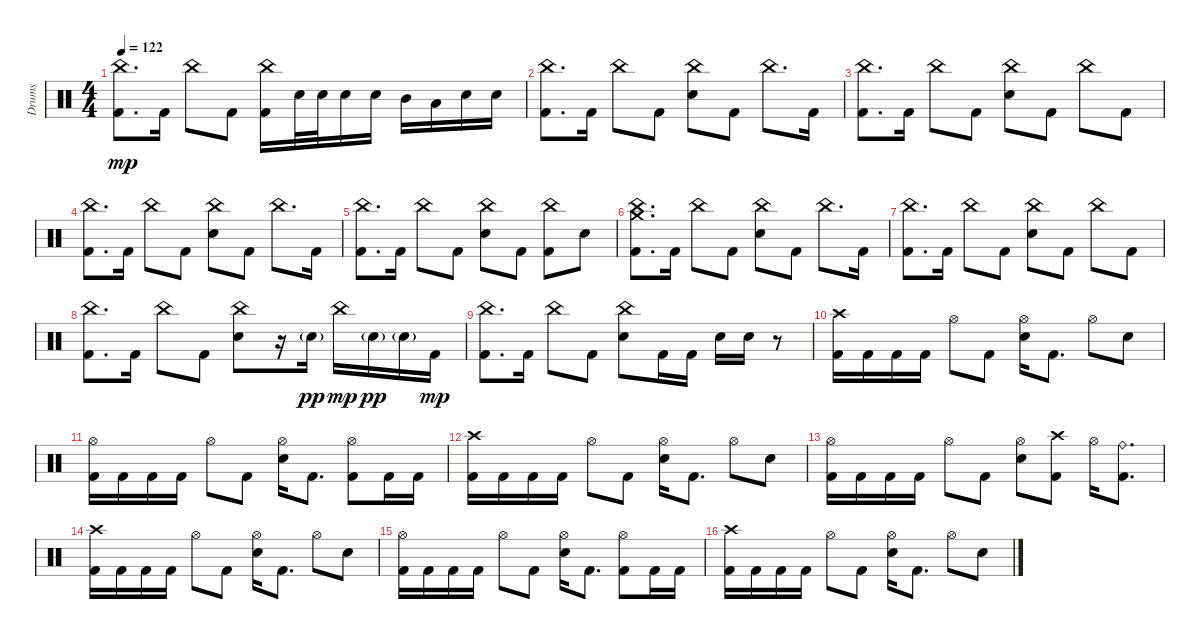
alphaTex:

\track ("Drums" "Drums") {instrument percussion}
\staff {score}
\articulation defaults
\ts (4 4)
\tempo 122
\clef neutral
\ks c
("China (hit)" "Kick (hit) 2").8{d dy mp} "Kick (hit) 2".16 "China (hit)".8 "Kick (hit) 2".8 ("China (hit)" "Kick (hit) 2").16 "Electric Snare (hit)".32 "Electric Snare (hit)".32 "Electric Snare (hit)".16 "Electric Snare (hit)".16 "Mid Tom (hit)".16 "Low Tom (hit)".16 "Electric Snare (hit)".16 "Electric Snare (hit)".16 |
("China (hit)" "Kick (hit) 2").8{d} "Kick (hit) 2".16 "China (hit)".8 "Kick (hit) 2".8 ("China (hit)" "Electric Snare (hit)").8 "Kick (hit) 2".8 "China (hit)".8{d} "Kick (hit) 2".16 |
("China (hit)" "Kick (hit) 2").8{d} "Kick (hit) 2".16 "China (hit)".8 "Kick (hit) 2".8 ("China (hit)" "Electric Snare (hit)").8 "Kick (hit) 2".8 "China (hit)".8 "Kick (hit) 2".8 |
("China (hit)" "Kick (hit) 2").8{d} "Kick (hit) 2".16 "China (hit)".8 "Kick (hit) 2".8 ("China (hit)" "Electric Snare (hit)").8 "Kick (hit) 2".8 "China (hit)".8{d} "Kick (hit) 2".16 |
("China (hit)" "Kick (hit) 2").8{d} "Kick (hit) 2".16 "China (hit)".8 "Kick (hit) 2".8 ("China (hit)" "Electric Snare (hit)").8 "Kick (hit) 2".8 ("China (hit)" "Kick (hit) 2").8 "Electric Snare (hit)".8 |
("China (hit)" "Crash medium (hit)" "Kick (hit) 2").8{d} "Kick (hit) 2".16 "China (hit)".8 "Kick (hit) 2".8 ("China (hit)" "Electric Snare (hit)").8 "Kick (hit) 2".8 "China (hit)".8{d} "Kick (hit) 2".16 |
("China (hit)" "Kick (hit) 2").8{d} "Kick (hit) 2".16 "China (hit)".8 "Kick (hit) 2".8 ("China (hit)" "Electric Snare (hit)").8 "Kick (hit) 2".8 "China (hit)".8 "Kick (hit) 2".8 |
("China (hit)" "Kick (hit) 2").8{d} "Kick (hit) 2".16 "China (hit)".8 "Kick (hit) 2".8 ("China (hit)" "Electric Snare (hit)").8 r.16 "Electric Snare (hit)"{g}.16{dy pp} "China (hit)".16{dy mp} "Electric Snare (hit)"{g}.16{dy pp} "Electric Snare (hit)"{g}.16 "Kick (hit) 2".16{dy mp} |
("China (hit)" "Kick (hit) 2").8{d} "Kick (hit) 2".16 "China (hit)".8 "Kick (hit) 2".8 ("China (hit)" "Electric Snare (hit)").8 "Kick (hit) 2".16 "Kick (hit) 2".16 "Electric Snare (hit)".16 "Electric Snare (hit)".16 r.8 |
("Crash high (hit)" "Kick (hit) 2").16 "Kick (hit) 2".16 "Kick (hit) 2".16 "Kick (hit) 2".16 "Hi-Hat (open)".8 "Kick (hit) 2".8 ("Hi-Hat (open)" "Electric Snare (hit)").16 "Kick (hit) 2".8{d} "Hi-Hat (open)".8 "Electric Snare (hit)".8 |
("Hi-Hat (open)" "Kick (hit) 2").16 "Kick (hit) 2".16 "Kick (hit) 2".16 "Kick (hit) 2".16 "Hi-Hat (open)".8 "Kick (hit) 2".8 ("Hi-Hat (open)" "Electric Snare (hit)").16 "Kick (hit) 2".8{d} ("Hi-Hat (open)" "Kick (hit) 2").8 "Kick (hit) 2".16 "Kick (hit) 2".16 |
("Crash high (hit)" "Kick (hit) 2").16 "Kick (hit) 2".16 "Kick (hit) 2".16 "Kick (hit) 2".16 "Hi-Hat (open)".8 "Kick (hit) 2".8 ("Hi-Hat (open)" "Electric Snare (hit)").16 "Kick (hit) 2".8{d} "Hi-Hat (open)".8 "Electric Snare (hit)".8 |
("Hi-Hat (open)" "Kick (hit) 2").16 "Kick (hit) 2".16 "Kick (hit) 2".16 "Kick (hit) 2".16 "Hi-Hat (open)".8 "Kick (hit) 2".8 ("Hi-Hat (open)" "Electric Snare (hit)").8 ("Crash high (hit)" "Kick (hit) 2").8 "Hi-Hat (open)".16 ("Ride (bell)" "Kick (hit) 2").8{d} |
("Crash high (hit)" "Kick (hit) 2").16 "Kick (hit) 2".16 "Kick (hit) 2".16 "Kick (hit) 2".16 "Hi-Hat (open)".8 "Kick (hit) 2".8 ("Hi-Hat (open)" "Electric Snare (hit)").16 "Kick (hit) 2".8{d} "Hi-Hat (open)".8 "Electric Snare (hit)".8 |
("Hi-Hat (open)" "Kick (hit) 2").16 "Kick (hit) 2".16 "Kick (hit) 2".16 "Kick (hit) 2".16 "Hi-Hat (open)".8 "Kick (hit) 2".8 ("Hi-Hat (open)" "Electric Snare (hit)").16 "Kick (hit) 2".8{d} ("Hi-Hat (open)" "Kick (hit) 2").8 "Kick (hit) 2".16 "Kick (hit) 2".16 |
("Crash high (hit)" "Kick (hit) 2").16 "Kick (hit) 2".16 "Kick (hit) 2".16 "Kick (hit) 2".16 "Hi-Hat (open)".8 "Kick (hit) 2".8 ("Hi-Hat (open)" "Electric Snare (hit)").16 "Kick (hit) 2".8{d} "Hi-Hat (open)".8 "Electric Snare (hit)".8
